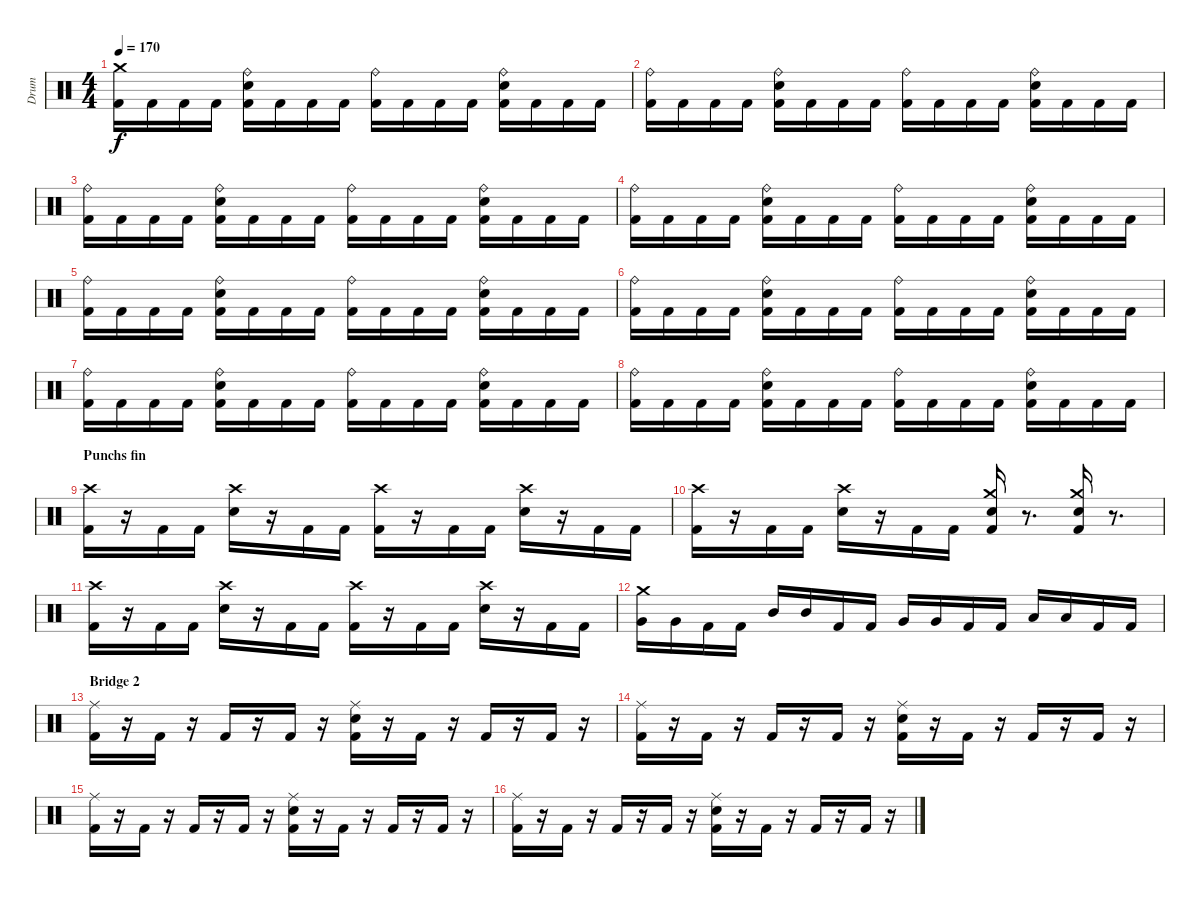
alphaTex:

\track ("Drum" "Drum") {instrument percussion}
\staff {score}
\articulation defaults
\ts (4 4)
\section ("" "")
\tempo 170
\clef neutral
\ks c
("Kick (hit) 2" "Crash medium (hit)").16{dy f} "Kick (hit) 2".16 "Kick (hit) 2".16 "Kick (hit) 2".16 ("Kick (hit) 2" "Electric Snare (hit)" "Ride (bell)").16 "Kick (hit) 2".16 "Kick (hit) 2".16 "Kick (hit) 2".16 ("Kick (hit) 2" "Ride (bell)").16 "Kick (hit) 2".16 "Kick (hit) 2".16 "Kick (hit) 2".16 ("Kick (hit) 2" "Electric Snare (hit)" "Ride (bell)").16 "Kick (hit) 2".16 "Kick (hit) 2".16 "Kick (hit) 2".16 |
("Kick (hit) 2" "Ride (bell)").16 "Kick (hit) 2".16 "Kick (hit) 2".16 "Kick (hit) 2".16 ("Kick (hit) 2" "Electric Snare (hit)" "Ride (bell)").16 "Kick (hit) 2".16 "Kick (hit) 2".16 "Kick (hit) 2".16 ("Kick (hit) 2" "Ride (bell)").16 "Kick (hit) 2".16 "Kick (hit) 2".16 "Kick (hit) 2".16 ("Electric Snare (hit)" "Kick (hit) 2" "Ride (bell)").16 "Kick (hit) 2".16 "Kick (hit) 2".16 "Kick (hit) 2".16 |
("Kick (hit) 2" "Ride (bell)").16 "Kick (hit) 2".16 "Kick (hit) 2".16 "Kick (hit) 2".16 ("Kick (hit) 2" "Electric Snare (hit)" "Ride (bell)").16 "Kick (hit) 2".16 "Kick (hit) 2".16 "Kick (hit) 2".16 ("Kick (hit) 2" "Ride (bell)").16 "Kick (hit) 2".16 "Kick (hit) 2".16 "Kick (hit) 2".16 ("Electric Snare (hit)" "Kick (hit) 2" "Ride (bell)").16 "Kick (hit) 2".16 "Kick (hit) 2".16 "Kick (hit) 2".16 |
("Kick (hit) 2" "Ride (bell)").16 "Kick (hit) 2".16 "Kick (hit) 2".16 "Kick (hit) 2".16 ("Electric Snare (hit)" "Kick (hit) 2" "Ride (bell)").16 "Kick (hit) 2".16 "Kick (hit) 2".16 "Kick (hit) 2".16 ("Kick (hit) 2" "Ride (bell)").16 "Kick (hit) 2".16 "Kick (hit) 2".16 "Kick (hit) 2".16 ("Electric Snare (hit)" "Kick (hit) 2" "Ride (bell)").16 "Kick (hit) 2".16 "Kick (hit) 2".16 "Kick (hit) 2".16 |
("Kick (hit) 2" "Ride (bell)").16 "Kick (hit) 2".16 "Kick (hit) 2".16 "Kick (hit) 2".16 ("Kick (hit) 2" "Electric Snare (hit)" "Ride (bell)").16 "Kick (hit) 2".16 "Kick (hit) 2".16 "Kick (hit) 2".16 ("Kick (hit) 2" "Ride (bell)").16 "Kick (hit) 2".16 "Kick (hit) 2".16 "Kick (hit) 2".16 ("Kick (hit) 2" "Electric Snare (hit)" "Ride (bell)").16 "Kick (hit) 2".16 "Kick (hit) 2".16 "Kick (hit) 2".16 |
("Kick (hit) 2" "Ride (bell)").16 "Kick (hit) 2".16 "Kick (hit) 2".16 "Kick (hit) 2".16 ("Kick (hit) 2" "Electric Snare (hit)" "Ride (bell)").16 "Kick (hit) 2".16 "Kick (hit) 2".16 "Kick (hit) 2".16 ("Kick (hit) 2" "Ride (bell)").16 "Kick (hit) 2".16 "Kick (hit) 2".16 "Kick (hit) 2".16 ("Electric Snare (hit)" "Kick (hit) 2" "Ride (bell)").16 "Kick (hit) 2".16 "Kick (hit) 2".16 "Kick (hit) 2".16 |
("Kick (hit) 2" "Ride (bell)").16 "Kick (hit) 2".16 "Kick (hit) 2".16 "Kick (hit) 2".16 ("Electric Snare (hit)" "Kick (hit) 2" "Ride (bell)").16 "Kick (hit) 2".16 "Kick (hit) 2".16 "Kick (hit) 2".16 ("Kick (hit) 2" "Ride (bell)").16 "Kick (hit) 2".16 "Kick (hit) 2".16 "Kick (hit) 2".16 ("Kick (hit) 2" "Electric Snare (hit)" "Ride (bell)").16 "Kick (hit) 2".16 "Kick (hit) 2".16 "Kick (hit) 2".16 |
("Kick (hit) 2" "Ride (bell)").16 "Kick (hit) 2".16 "Kick (hit) 2".16 "Kick (hit) 2".16 ("Kick (hit) 2" "Electric Snare (hit)" "Ride (bell)").16 "Kick (hit) 2".16 "Kick (hit) 2".16 "Kick (hit) 2".16 ("Kick (hit) 2" "Ride (bell)").16 "Kick (hit) 2".16 "Kick (hit) 2".16 "Kick (hit) 2".16 ("Kick (hit) 2" "Electric Snare (hit)" "Ride (bell)").16 "Kick (hit) 2".16 "Kick (hit) 2".16 "Kick (hit) 2".16 |
\section ("" "Punchs fin")
("Kick (hit) 2" "Crash high (hit)").16 r.16 "Kick (hit) 2".16 "Kick (hit) 2".16 ("Electric Snare (hit)" "Crash high (hit)").16 r.16 "Kick (hit) 2".16 "Kick (hit) 2".16 ("Kick (hit) 2" "Crash high (hit)").16 r.16 "Kick (hit) 2".16 "Kick (hit) 2".16 ("Electric Snare (hit)" "Crash high (hit)").16 r.16 "Kick (hit) 2".16 "Kick (hit) 2".16 |
("Kick (hit) 2" "Crash high (hit)").16 r.16 "Kick (hit) 2".16 "Kick (hit) 2".16 ("Electric Snare (hit)" "Crash high (hit)").16 r.16 "Kick (hit) 2".16 "Kick (hit) 2".16 ("Kick (hit) 2" "Electric Snare (hit)" "Crash medium (hit)").16 r.8{d} ("Snare (hit) 2" "Kick (hit) 2" "Crash medium (hit)").16 r.8{d} |
("Kick (hit) 2" "Crash high (hit)").16 r.16 "Kick (hit) 2".16 "Kick (hit) 2".16 ("Electric Snare (hit)" "Crash high (hit)").16 r.16 "Kick (hit) 2".16 "Kick (hit) 2".16 ("Kick (hit) 2" "Crash high (hit)").16 r.16 "Kick (hit) 2".16 "Kick (hit) 2".16 ("Electric Snare (hit)" "Crash high (hit)").16 r.16 "Kick (hit) 2".16 "Kick (hit) 2".16 |
("Crash medium (hit)" "Very Low Tom (hit)").16 "Very Low Tom (hit)".16 "Kick (hit) 2".16 "Kick (hit) 2".16 "Mid Tom (hit)".16 "Mid Tom (hit)".16 "Kick (hit) 2".16 "Kick (hit) 2".16 "Very Low Tom (hit)".16 "Very Low Tom (hit)".16 "Kick (hit) 2".16 "Kick (hit) 2".16 "Low Tom (hit)".16 "Low Tom (hit)".16 "Kick (hit) 2".16 "Kick (hit) 2".16 |
\section ("" "Bridge 2")
("Kick (hit) 2" "Ride (middle)").16 r.16 "Kick (hit) 2".16 r.16 "Kick (hit) 2".16 r.16 "Kick (hit) 2".16 r.16 ("Kick (hit) 2" "Electric Snare (hit)" "Ride (middle)").16 r.16 "Kick (hit) 2".16 r.16 "Kick (hit) 2".16 r.16 "Kick (hit) 2".16 r.16 |
("Kick (hit) 2" "Ride (middle)").16 r.16 "Kick (hit) 2".16 r.16 "Kick (hit) 2".16 r.16 "Kick (hit) 2".16 r.16 ("Kick (hit) 2" "Electric Snare (hit)" "Ride (middle)").16 r.16 "Kick (hit) 2".16 r.16 "Kick (hit) 2".16 r.16 "Kick (hit) 2".16 r.16 |
("Kick (hit) 2" "Ride (middle)").16 r.16 "Kick (hit) 2".16 r.16 "Kick (hit) 2".16 r.16 "Kick (hit) 2".16 r.16 ("Kick (hit) 2" "Electric Snare (hit)" "Ride (middle)").16 r.16 "Kick (hit) 2".16 r.16 "Kick (hit) 2".16 r.16 "Kick (hit) 2".16 r.16 |
("Kick (hit) 2" "Ride (middle)").16 r.16 "Kick (hit) 2".16 r.16 "Kick (hit) 2".16 r.16 "Kick (hit) 2".16 r.16 ("Kick (hit) 2" "Electric Snare (hit)" "Ride (middle)").16 r.16 "Kick (hit) 2".16 r.16 "Kick (hit) 2".16 r.16 "Kick (hit) 2".16 r.16
